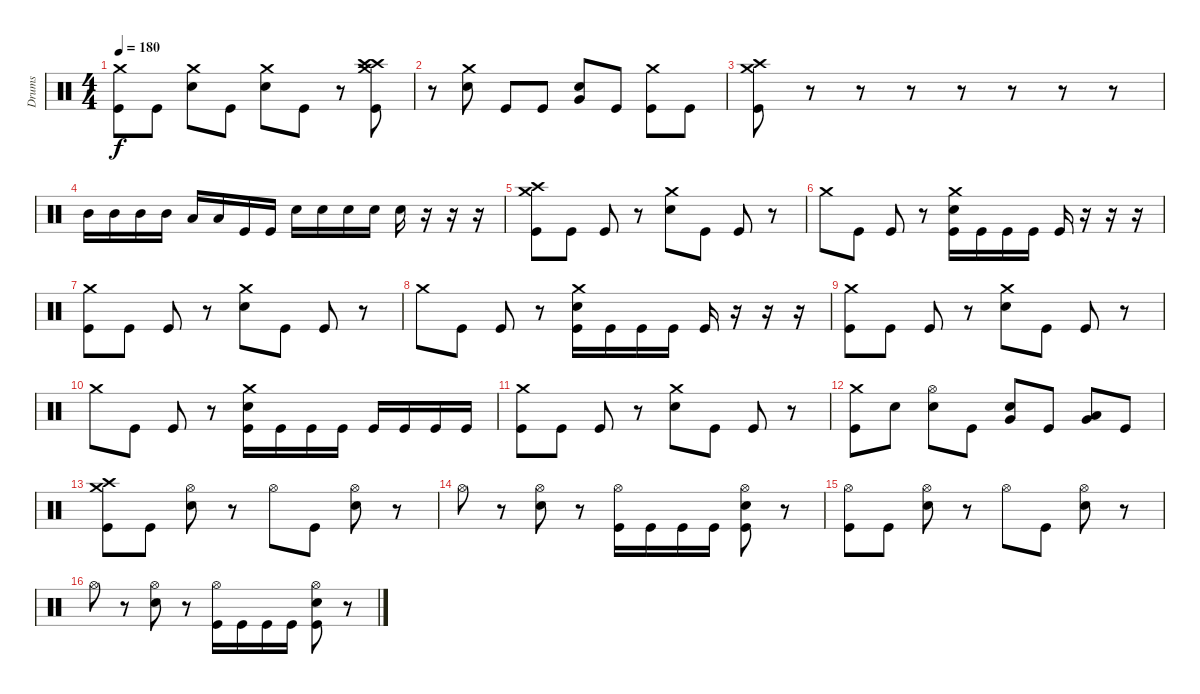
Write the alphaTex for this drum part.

\track ("Drums" "Drums") {instrument percussion}
\staff {score}
\articulation defaults
\ts (4 4)
\tempo 180
\clef neutral
\ks c
("Crash medium (hit)" "Kick (hit)").8{dy f} "Kick (hit)".8 ("Snare (hit) 2" "Crash medium (hit)").8 "Kick (hit)".8 ("Crash medium (hit)" "Snare (hit) 2").8 "Kick (hit)".8 r.8 ("Crash medium (hit)" "Crash high (hit)" "Crash high (hit)" "Kick (hit)").8 |
r.8 ("Crash medium (hit)" "Snare (hit) 2").8 "Kick (hit)".8 "Kick (hit)".8 ("Snare (hit) 2" "Very Low Tom (hit)").8 "Kick (hit)".8 ("Kick (hit)" "Crash medium (hit)").8 "Kick (hit)".8 |
("Kick (hit)" "Crash medium (hit)" "Crash high (hit)").8 r.8 r.8 r.8 r.8 r.8 r.8 r.8 |
"Mid Tom (hit)".16 "Mid Tom (hit)".16 "Mid Tom (hit)".16 "Mid Tom (hit)".16 "Low Tom (hit)".16 "Low Tom (hit)".16 "Kick (hit)".16 "Kick (hit)".16 "Snare (hit) 2".16 "Snare (hit) 2".16 "Snare (hit) 2".16 "Snare (hit) 2".16 "Snare (hit) 2".16 r.16 r.16 r.16 |
("Crash high (hit)" "Crash medium (hit)" "Kick (hit)").8 "Kick (hit)".8 "Kick (hit)".8 r.8 ("Crash medium (hit)" "Snare (hit) 2").8 "Kick (hit)".8 "Kick (hit)".8 r.8 |
"Crash medium (hit)".8 "Kick (hit)".8 "Kick (hit)".8 r.8 ("Kick (hit)" "Crash medium (hit)" "Snare (hit) 2").16 "Kick (hit)".16 "Kick (hit)".16 "Kick (hit)".16 "Kick (hit)".16 r.16 r.16 r.16 |
("Crash medium (hit)" "Kick (hit)").8 "Kick (hit)".8 "Kick (hit)".8 r.8 ("Crash medium (hit)" "Snare (hit) 2").8 "Kick (hit)".8 "Kick (hit)".8 r.8 |
"Crash medium (hit)".8 "Kick (hit)".8 "Kick (hit)".8 r.8 ("Kick (hit)" "Crash medium (hit)" "Snare (hit) 2").16 "Kick (hit)".16 "Kick (hit)".16 "Kick (hit)".16 "Kick (hit)".16 r.16 r.16 r.16 |
("Crash medium (hit)" "Kick (hit)").8 "Kick (hit)".8 "Kick (hit)".8 r.8 ("Crash medium (hit)" "Snare (hit) 2").8 "Kick (hit)".8 "Kick (hit)".8 r.8 |
"Crash medium (hit)".8 "Kick (hit)".8 "Kick (hit)".8 r.8 ("Kick (hit)" "Crash medium (hit)" "Snare (hit) 2").16 "Kick (hit)".16 "Kick (hit)".16 "Kick (hit)".16 "Kick (hit)".16 "Kick (hit)".16 "Kick (hit)".16 "Kick (hit)".16 |
("Crash medium (hit)" "Kick (hit)").8 "Kick (hit)".8 "Kick (hit)".8 r.8 ("Crash medium (hit)" "Snare (hit) 2").8 "Kick (hit)".8 "Kick (hit)".8 r.8 |
("Crash medium (hit)" "Kick (hit)").8 "Snare (hit) 2".8 ("Snare (hit) 2" "Hi-Hat (open)").8 "Kick (hit)".8 ("Snare (hit) 2" "Very Low Tom (hit)").8 "Kick (hit)".8 ("Very Low Tom (hit)" "Low Floor Tom (hit)").8 "Kick (hit)".8 |
("Crash high (hit)" "Kick (hit)" "Crash medium (hit)").8 "Kick (hit)".8 ("Hi-Hat (open)" "Snare (hit) 2").8 r.8 "Hi-Hat (open)".8 "Kick (hit)".8 ("Hi-Hat (open)" "Snare (hit) 2").8 r.8 |
"Hi-Hat (open)".8 r.8 ("Hi-Hat (open)" "Snare (hit) 2").8 r.8 ("Hi-Hat (open)" "Kick (hit)").16 "Kick (hit)".16 "Kick (hit)".16 "Kick (hit)".16 ("Hi-Hat (open)" "Snare (hit) 2" "Kick (hit)").8 r.8 |
("Hi-Hat (open)" "Kick (hit)").8 "Kick (hit)".8 ("Hi-Hat (open)" "Snare (hit) 2").8 r.8 "Hi-Hat (open)".8 "Kick (hit)".8 ("Hi-Hat (open)" "Snare (hit) 2").8 r.8 |
"Hi-Hat (open)".8 r.8 ("Hi-Hat (open)" "Snare (hit) 2").8 r.8 ("Hi-Hat (open)" "Kick (hit)").16 "Kick (hit)".16 "Kick (hit)".16 "Kick (hit)".16 ("Hi-Hat (open)" "Snare (hit) 2" "Kick (hit)").8 r.8
